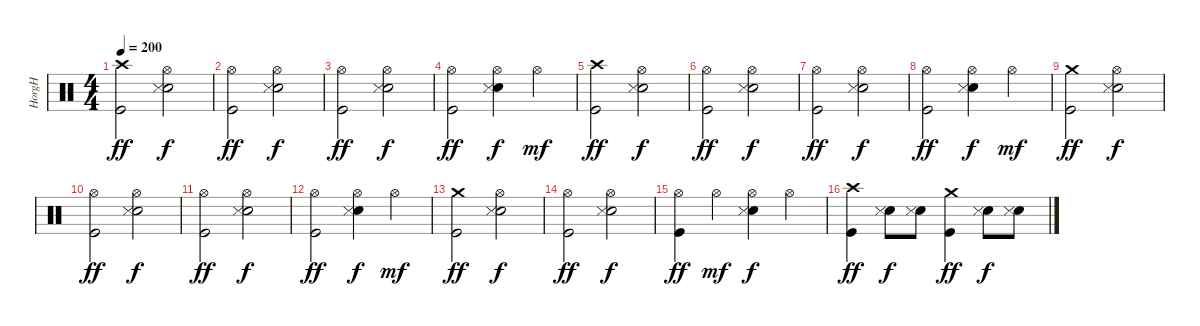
\track ("HorgH" "HorgH") {instrument percussion}
\staff {score}
\articulation defaults
\ts (4 4)
\section ("" "")
\tempo 200
\clef neutral
\ks c
("Crash high (hit)" "Kick (hit)").2{dy ff} ("Hi-Hat (open)" "Electric Snare (hit)" "Snare (side stick) 3").2{dy f} |
("Hi-Hat (open)" "Kick (hit)").2{dy ff} ("Hi-Hat (open)" "Electric Snare (hit)" "Snare (side stick) 3").2{dy f} |
("Hi-Hat (open)" "Kick (hit)").2{dy ff} ("Hi-Hat (open)" "Electric Snare (hit)" "Snare (side stick) 3").2{dy f} |
("Hi-Hat (open)" "Kick (hit)").2{dy ff} ("Hi-Hat (open)" "Electric Snare (hit)" "Snare (side stick) 3").4{dy f} "Hi-Hat (open)".4{dy mf} |
("Crash high (hit)" "Kick (hit)").2{dy ff} ("Hi-Hat (open)" "Electric Snare (hit)" "Snare (side stick) 3").2{dy f} |
("Hi-Hat (open)" "Kick (hit)").2{dy ff} ("Hi-Hat (open)" "Electric Snare (hit)" "Snare (side stick) 3").2{dy f} |
("Hi-Hat (open)" "Kick (hit)").2{dy ff} ("Hi-Hat (open)" "Electric Snare (hit)" "Snare (side stick) 3").2{dy f} |
("Hi-Hat (open)" "Kick (hit)").2{dy ff} ("Hi-Hat (open)" "Electric Snare (hit)" "Snare (side stick) 3").4{dy f} "Hi-Hat (open)".4{dy mf} |
("Crash medium (hit)" "Kick (hit)").2{dy ff} ("Hi-Hat (open)" "Electric Snare (hit)" "Snare (side stick) 3").2{dy f} |
("Hi-Hat (open)" "Kick (hit)").2{dy ff} ("Hi-Hat (open)" "Electric Snare (hit)" "Snare (side stick) 3").2{dy f} |
("Hi-Hat (open)" "Kick (hit)").2{dy ff} ("Hi-Hat (open)" "Electric Snare (hit)" "Snare (side stick) 3").2{dy f} |
("Hi-Hat (open)" "Kick (hit)").2{dy ff} ("Hi-Hat (open)" "Electric Snare (hit)" "Snare (side stick) 3").4{dy f} "Hi-Hat (open)".4{dy mf} |
("Crash medium (hit)" "Kick (hit)").2{dy ff} ("Hi-Hat (open)" "Electric Snare (hit)" "Snare (side stick) 3").2{dy f} |
("Hi-Hat (open)" "Kick (hit)").2{dy ff} ("Hi-Hat (open)" "Electric Snare (hit)" "Snare (side stick) 3").2{dy f} |
("Hi-Hat (open)" "Kick (hit)").4{dy ff} "Hi-Hat (open)".4{dy mf} ("Hi-Hat (open)" "Electric Snare (hit)" "Snare (side stick) 3").4{dy f} "Hi-Hat (open)".4 |
("Crash high (hit)" "Kick (hit)").4{dy ff} ("Electric Snare (hit)" "Snare (side stick) 3").8{dy f} ("Electric Snare (hit)" "Snare (side stick) 3").8 ("Crash medium (hit)" "Kick (hit)").4{dy ff} ("Electric Snare (hit)" "Snare (side stick) 3").8{dy f} ("Electric Snare (hit)" "Snare (side stick) 3").8
